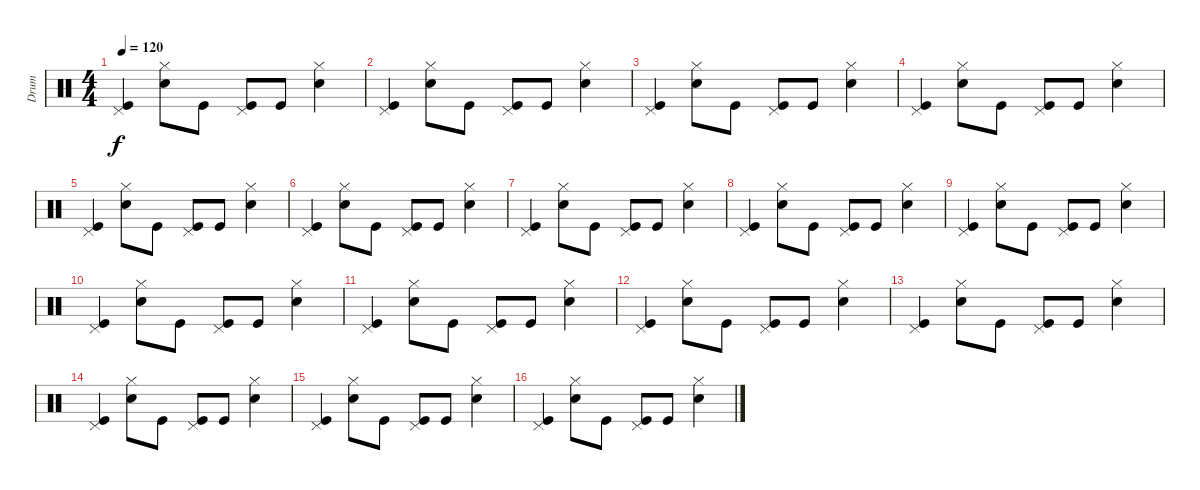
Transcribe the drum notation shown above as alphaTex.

\track ("Drum" "Drum") {instrument percussion}
\staff {score}
\articulation defaults
\ts (4 4)
\tempo 120
\clef neutral
\ks c
("Pedal Hi-Hat (hit)" "Kick (hit)").4{dy f} ("Hi-Hat (closed)" "Snare (hit) 2").8 "Kick (hit)".8 ("Pedal Hi-Hat (hit)" "Kick (hit)").8 "Kick (hit)".8 ("Hi-Hat (closed)" "Snare (hit) 2").4 |
("Pedal Hi-Hat (hit)" "Kick (hit)").4 ("Hi-Hat (closed)" "Snare (hit) 2").8 "Kick (hit)".8 ("Pedal Hi-Hat (hit)" "Kick (hit)").8 "Kick (hit)".8 ("Hi-Hat (closed)" "Snare (hit) 2").4 |
("Pedal Hi-Hat (hit)" "Kick (hit)").4 ("Hi-Hat (closed)" "Snare (hit) 2").8 "Kick (hit)".8 ("Pedal Hi-Hat (hit)" "Kick (hit)").8 "Kick (hit)".8 ("Hi-Hat (closed)" "Snare (hit) 2").4 |
("Pedal Hi-Hat (hit)" "Kick (hit)").4 ("Hi-Hat (closed)" "Snare (hit) 2").8 "Kick (hit)".8 ("Pedal Hi-Hat (hit)" "Kick (hit)").8 "Kick (hit)".8 ("Hi-Hat (closed)" "Snare (hit) 2").4 |
("Pedal Hi-Hat (hit)" "Kick (hit)").4 ("Hi-Hat (closed)" "Snare (hit) 2").8 "Kick (hit)".8 ("Pedal Hi-Hat (hit)" "Kick (hit)").8 "Kick (hit)".8 ("Hi-Hat (closed)" "Snare (hit) 2").4 |
("Pedal Hi-Hat (hit)" "Kick (hit)").4 ("Hi-Hat (closed)" "Snare (hit) 2").8 "Kick (hit)".8 ("Pedal Hi-Hat (hit)" "Kick (hit)").8 "Kick (hit)".8 ("Hi-Hat (closed)" "Snare (hit) 2").4 |
("Pedal Hi-Hat (hit)" "Kick (hit)").4 ("Hi-Hat (closed)" "Snare (hit) 2").8 "Kick (hit)".8 ("Pedal Hi-Hat (hit)" "Kick (hit)").8 "Kick (hit)".8 ("Hi-Hat (closed)" "Snare (hit) 2").4 |
("Pedal Hi-Hat (hit)" "Kick (hit)").4 ("Hi-Hat (closed)" "Snare (hit) 2").8 "Kick (hit)".8 ("Pedal Hi-Hat (hit)" "Kick (hit)").8 "Kick (hit)".8 ("Hi-Hat (closed)" "Snare (hit) 2").4 |
("Pedal Hi-Hat (hit)" "Kick (hit)").4 ("Hi-Hat (closed)" "Snare (hit) 2").8 "Kick (hit)".8 ("Pedal Hi-Hat (hit)" "Kick (hit)").8 "Kick (hit)".8 ("Hi-Hat (closed)" "Snare (hit) 2").4 |
("Pedal Hi-Hat (hit)" "Kick (hit)").4 ("Hi-Hat (closed)" "Snare (hit) 2").8 "Kick (hit)".8 ("Pedal Hi-Hat (hit)" "Kick (hit)").8 "Kick (hit)".8 ("Hi-Hat (closed)" "Snare (hit) 2").4 |
("Pedal Hi-Hat (hit)" "Kick (hit)").4 ("Hi-Hat (closed)" "Snare (hit) 2").8 "Kick (hit)".8 ("Pedal Hi-Hat (hit)" "Kick (hit)").8 "Kick (hit)".8 ("Hi-Hat (closed)" "Snare (hit) 2").4 |
("Pedal Hi-Hat (hit)" "Kick (hit)").4 ("Hi-Hat (closed)" "Snare (hit) 2").8 "Kick (hit)".8 ("Pedal Hi-Hat (hit)" "Kick (hit)").8 "Kick (hit)".8 ("Hi-Hat (closed)" "Snare (hit) 2").4 |
("Pedal Hi-Hat (hit)" "Kick (hit)").4 ("Hi-Hat (closed)" "Snare (hit) 2").8 "Kick (hit)".8 ("Pedal Hi-Hat (hit)" "Kick (hit)").8 "Kick (hit)".8 ("Hi-Hat (closed)" "Snare (hit) 2").4 |
("Pedal Hi-Hat (hit)" "Kick (hit)").4 ("Hi-Hat (closed)" "Snare (hit) 2").8 "Kick (hit)".8 ("Pedal Hi-Hat (hit)" "Kick (hit)").8 "Kick (hit)".8 ("Hi-Hat (closed)" "Snare (hit) 2").4 |
("Pedal Hi-Hat (hit)" "Kick (hit)").4 ("Hi-Hat (closed)" "Snare (hit) 2").8 "Kick (hit)".8 ("Pedal Hi-Hat (hit)" "Kick (hit)").8 "Kick (hit)".8 ("Hi-Hat (closed)" "Snare (hit) 2").4 |
("Pedal Hi-Hat (hit)" "Kick (hit)").4 ("Hi-Hat (closed)" "Snare (hit) 2").8 "Kick (hit)".8 ("Pedal Hi-Hat (hit)" "Kick (hit)").8 "Kick (hit)".8 ("Hi-Hat (closed)" "Snare (hit) 2").4
